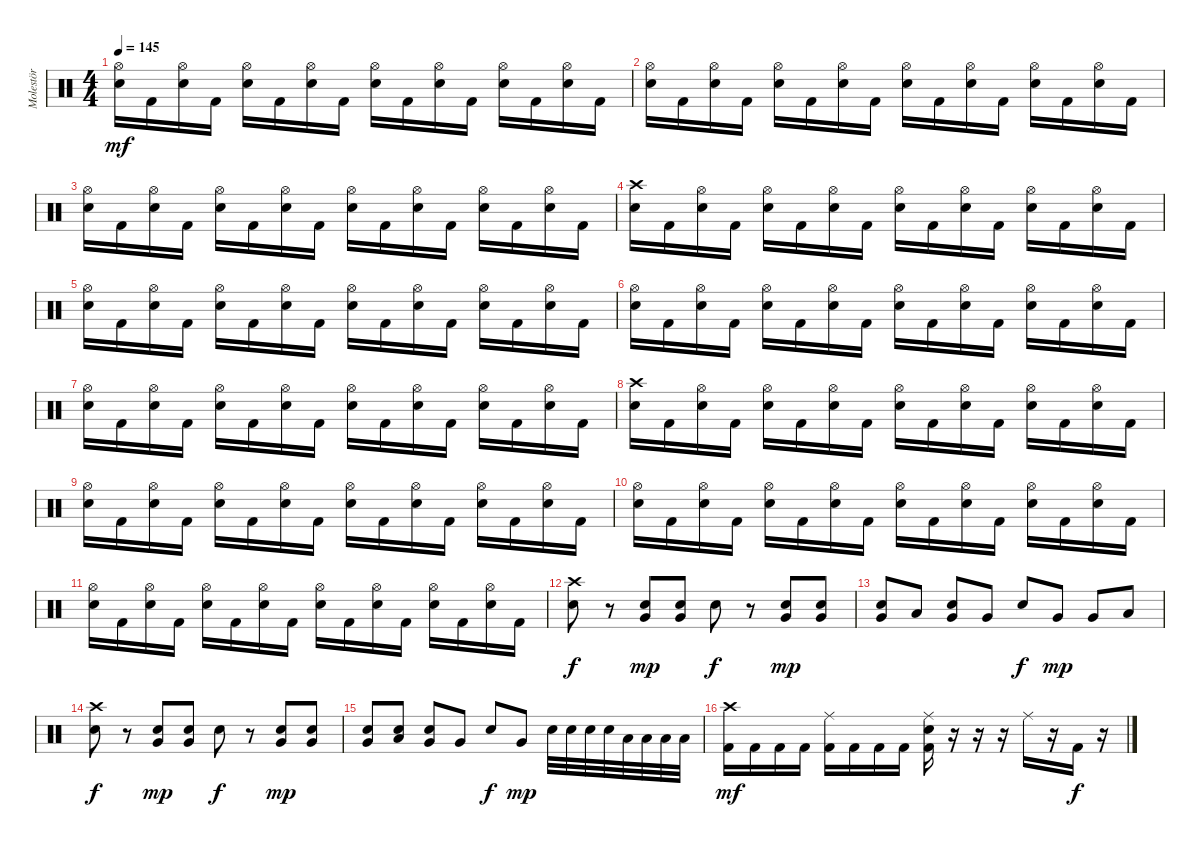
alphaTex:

\track ("Molestör" "Molestör") {instrument percussion}
\staff {score}
\articulation defaults
\ts (4 4)
\tempo 145
\clef neutral
\ks c
("Hi-Hat (open)" "Electric Snare (hit)").16{dy mf} "Kick (hit) 2".16 ("Hi-Hat (open)" "Electric Snare (hit)").16 "Kick (hit) 2".16 ("Hi-Hat (open)" "Electric Snare (hit)").16 "Kick (hit) 2".16 ("Hi-Hat (open)" "Electric Snare (hit)").16 "Kick (hit) 2".16 ("Hi-Hat (open)" "Electric Snare (hit)").16 "Kick (hit) 2".16 ("Hi-Hat (open)" "Electric Snare (hit)").16 "Kick (hit) 2".16 ("Hi-Hat (open)" "Electric Snare (hit)").16 "Kick (hit) 2".16 ("Hi-Hat (open)" "Electric Snare (hit)").16 "Kick (hit) 2".16 |
("Hi-Hat (open)" "Electric Snare (hit)").16 "Kick (hit) 2".16 ("Hi-Hat (open)" "Electric Snare (hit)").16 "Kick (hit) 2".16 ("Hi-Hat (open)" "Electric Snare (hit)").16 "Kick (hit) 2".16 ("Hi-Hat (open)" "Electric Snare (hit)").16 "Kick (hit) 2".16 ("Hi-Hat (open)" "Electric Snare (hit)").16 "Kick (hit) 2".16 ("Hi-Hat (open)" "Electric Snare (hit)").16 "Kick (hit) 2".16 ("Hi-Hat (open)" "Electric Snare (hit)").16 "Kick (hit) 2".16 ("Hi-Hat (open)" "Electric Snare (hit)").16 "Kick (hit) 2".16 |
("Hi-Hat (open)" "Electric Snare (hit)").16 "Kick (hit) 2".16 ("Hi-Hat (open)" "Electric Snare (hit)").16 "Kick (hit) 2".16 ("Hi-Hat (open)" "Electric Snare (hit)").16 "Kick (hit) 2".16 ("Hi-Hat (open)" "Electric Snare (hit)").16 "Kick (hit) 2".16 ("Hi-Hat (open)" "Electric Snare (hit)").16 "Kick (hit) 2".16 ("Hi-Hat (open)" "Electric Snare (hit)").16 "Kick (hit) 2".16 ("Hi-Hat (open)" "Electric Snare (hit)").16 "Kick (hit) 2".16 ("Hi-Hat (open)" "Electric Snare (hit)").16 "Kick (hit) 2".16 |
("Crash high (hit)" "Electric Snare (hit)").16 "Kick (hit) 2".16 ("Hi-Hat (open)" "Electric Snare (hit)").16 "Kick (hit) 2".16 ("Hi-Hat (open)" "Electric Snare (hit)").16 "Kick (hit) 2".16 ("Hi-Hat (open)" "Electric Snare (hit)").16 "Kick (hit) 2".16 ("Hi-Hat (open)" "Electric Snare (hit)").16 "Kick (hit) 2".16 ("Hi-Hat (open)" "Electric Snare (hit)").16 "Kick (hit) 2".16 ("Hi-Hat (open)" "Electric Snare (hit)").16 "Kick (hit) 2".16 ("Hi-Hat (open)" "Electric Snare (hit)").16 "Kick (hit) 2".16 |
("Hi-Hat (open)" "Electric Snare (hit)").16 "Kick (hit) 2".16 ("Hi-Hat (open)" "Electric Snare (hit)").16 "Kick (hit) 2".16 ("Hi-Hat (open)" "Electric Snare (hit)").16 "Kick (hit) 2".16 ("Hi-Hat (open)" "Electric Snare (hit)").16 "Kick (hit) 2".16 ("Hi-Hat (open)" "Electric Snare (hit)").16 "Kick (hit) 2".16 ("Hi-Hat (open)" "Electric Snare (hit)").16 "Kick (hit) 2".16 ("Hi-Hat (open)" "Electric Snare (hit)").16 "Kick (hit) 2".16 ("Hi-Hat (open)" "Electric Snare (hit)").16 "Kick (hit) 2".16 |
("Hi-Hat (open)" "Electric Snare (hit)").16 "Kick (hit) 2".16 ("Hi-Hat (open)" "Electric Snare (hit)").16 "Kick (hit) 2".16 ("Hi-Hat (open)" "Electric Snare (hit)").16 "Kick (hit) 2".16 ("Hi-Hat (open)" "Electric Snare (hit)").16 "Kick (hit) 2".16 ("Hi-Hat (open)" "Electric Snare (hit)").16 "Kick (hit) 2".16 ("Hi-Hat (open)" "Electric Snare (hit)").16 "Kick (hit) 2".16 ("Hi-Hat (open)" "Electric Snare (hit)").16 "Kick (hit) 2".16 ("Hi-Hat (open)" "Electric Snare (hit)").16 "Kick (hit) 2".16 |
("Hi-Hat (open)" "Electric Snare (hit)").16 "Kick (hit) 2".16 ("Hi-Hat (open)" "Electric Snare (hit)").16 "Kick (hit) 2".16 ("Hi-Hat (open)" "Electric Snare (hit)").16 "Kick (hit) 2".16 ("Hi-Hat (open)" "Electric Snare (hit)").16 "Kick (hit) 2".16 ("Hi-Hat (open)" "Electric Snare (hit)").16 "Kick (hit) 2".16 ("Hi-Hat (open)" "Electric Snare (hit)").16 "Kick (hit) 2".16 ("Hi-Hat (open)" "Electric Snare (hit)").16 "Kick (hit) 2".16 ("Hi-Hat (open)" "Electric Snare (hit)").16 "Kick (hit) 2".16 |
("Crash high (hit)" "Electric Snare (hit)").16 "Kick (hit) 2".16 ("Hi-Hat (open)" "Electric Snare (hit)").16 "Kick (hit) 2".16 ("Hi-Hat (open)" "Electric Snare (hit)").16 "Kick (hit) 2".16 ("Hi-Hat (open)" "Electric Snare (hit)").16 "Kick (hit) 2".16 ("Hi-Hat (open)" "Electric Snare (hit)").16 "Kick (hit) 2".16 ("Hi-Hat (open)" "Electric Snare (hit)").16 "Kick (hit) 2".16 ("Hi-Hat (open)" "Electric Snare (hit)").16 "Kick (hit) 2".16 ("Hi-Hat (open)" "Electric Snare (hit)").16 "Kick (hit) 2".16 |
("Hi-Hat (open)" "Electric Snare (hit)").16 "Kick (hit) 2".16 ("Hi-Hat (open)" "Electric Snare (hit)").16 "Kick (hit) 2".16 ("Hi-Hat (open)" "Electric Snare (hit)").16 "Kick (hit) 2".16 ("Hi-Hat (open)" "Electric Snare (hit)").16 "Kick (hit) 2".16 ("Hi-Hat (open)" "Electric Snare (hit)").16 "Kick (hit) 2".16 ("Hi-Hat (open)" "Electric Snare (hit)").16 "Kick (hit) 2".16 ("Hi-Hat (open)" "Electric Snare (hit)").16 "Kick (hit) 2".16 ("Hi-Hat (open)" "Electric Snare (hit)").16 "Kick (hit) 2".16 |
("Hi-Hat (open)" "Electric Snare (hit)").16 "Kick (hit) 2".16 ("Hi-Hat (open)" "Electric Snare (hit)").16 "Kick (hit) 2".16 ("Hi-Hat (open)" "Electric Snare (hit)").16 "Kick (hit) 2".16 ("Hi-Hat (open)" "Electric Snare (hit)").16 "Kick (hit) 2".16 ("Hi-Hat (open)" "Electric Snare (hit)").16 "Kick (hit) 2".16 ("Hi-Hat (open)" "Electric Snare (hit)").16 "Kick (hit) 2".16 ("Hi-Hat (open)" "Electric Snare (hit)").16 "Kick (hit) 2".16 ("Hi-Hat (open)" "Electric Snare (hit)").16 "Kick (hit) 2".16 |
("Hi-Hat (open)" "Electric Snare (hit)").16 "Kick (hit) 2".16 ("Hi-Hat (open)" "Electric Snare (hit)").16 "Kick (hit) 2".16 ("Hi-Hat (open)" "Electric Snare (hit)").16 "Kick (hit) 2".16 ("Hi-Hat (open)" "Electric Snare (hit)").16 "Kick (hit) 2".16 ("Hi-Hat (open)" "Electric Snare (hit)").16 "Kick (hit) 2".16 ("Hi-Hat (open)" "Electric Snare (hit)").16 "Kick (hit) 2".16 ("Hi-Hat (open)" "Electric Snare (hit)").16 "Kick (hit) 2".16 ("Hi-Hat (open)" "Electric Snare (hit)").16 "Kick (hit) 2".16 |
("Crash high (hit)" "Electric Snare (hit)").8{dy f} r.8 ("Electric Snare (hit)" "Very Low Tom (hit)").8{dy mp} ("Electric Snare (hit)" "Very Low Tom (hit)").8 "Electric Snare (hit)".8{dy f} r.8 ("Electric Snare (hit)" "Very Low Tom (hit)").8{dy mp} ("Electric Snare (hit)" "Very Low Tom (hit)").8 |
("Electric Snare (hit)" "Very Low Tom (hit)").8 "Low Floor Tom (hit)".8 ("Electric Snare (hit)" "Very Low Tom (hit)").8 "Very Low Tom (hit)".8 "Electric Snare (hit)".8{dy f} "Very Low Tom (hit)".8{dy mp} "Very Low Tom (hit)".8 "Low Floor Tom (hit)".8 |
("Crash high (hit)" "Electric Snare (hit)").8{dy f} r.8 ("Electric Snare (hit)" "Very Low Tom (hit)").8{dy mp} ("Electric Snare (hit)" "Very Low Tom (hit)").8 "Electric Snare (hit)".8{dy f} r.8 ("Electric Snare (hit)" "Very Low Tom (hit)").8{dy mp} ("Electric Snare (hit)" "Very Low Tom (hit)").8 |
("Electric Snare (hit)" "Very Low Tom (hit)").8 ("Electric Snare (hit)" "Low Floor Tom (hit)").8 ("Electric Snare (hit)" "Very Low Tom (hit)").8 "Very Low Tom (hit)".8 "Electric Snare (hit)".8{dy f} "Very Low Tom (hit)".8{dy mp} "Electric Snare (hit)".32 "Electric Snare (hit)".32 "Electric Snare (hit)".32 "Electric Snare (hit)".32 "Low Tom (hit)".32 "Low Tom (hit)".32 "Low Floor Tom (hit)".32 "Low Floor Tom (hit)".32 |
("Crash high (hit)" "Kick (hit) 2").16{dy mf} "Kick (hit) 2".16 "Kick (hit) 2".16 "Kick (hit) 2".16 ("Ride (middle)" "Kick (hit) 2").16 "Kick (hit) 2".16 "Kick (hit) 2".16 "Kick (hit) 2".16 ("Ride (middle)" "Electric Snare (hit)" "Kick (hit) 2").16 r.16 r.16 r.16 "Ride (middle)".16 r.16 "Kick (hit) 2".16{dy f} r.16
